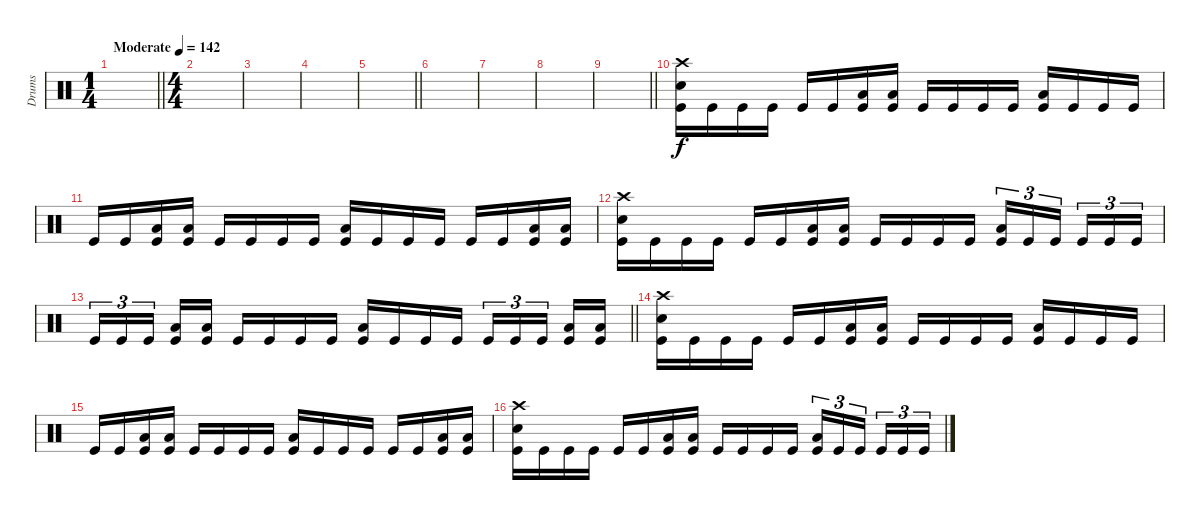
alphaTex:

\track ("Drums" "Drums") {instrument percussion}
\staff
\articulation defaults
\ts (1 4)
\tempo (142 "Moderate")
\clef neutral
\barLineRight lightlight
\ks c
|
\ts (4 4)
|
|
|
\barLineRight lightlight
|
|
|
|
\barLineRight lightlight
|
("Crash high (hit)" "Electric Snare (hit)" "Kick (hit)").16 "Kick (hit)".16 "Kick (hit)".16 "Kick (hit)".16 "Kick (hit)".16 "Kick (hit)".16 ("Low Floor Tom (hit)" "Kick (hit)").16 ("Low Floor Tom (hit)" "Kick (hit)").16 "Kick (hit)".16 "Kick (hit)".16 "Kick (hit)".16 "Kick (hit)".16 ("Low Floor Tom (hit)" "Kick (hit)").16 "Kick (hit)".16 "Kick (hit)".16 "Kick (hit)".16 |
"Kick (hit)".16 "Kick (hit)".16 ("Low Floor Tom (hit)" "Kick (hit)").16 ("Low Floor Tom (hit)" "Kick (hit)").16 "Kick (hit)".16 "Kick (hit)".16 "Kick (hit)".16 "Kick (hit)".16 ("Low Floor Tom (hit)" "Kick (hit)").16 "Kick (hit)".16 "Kick (hit)".16 "Kick (hit)".16 "Kick (hit)".16 "Kick (hit)".16 ("Low Floor Tom (hit)" "Kick (hit)").16 ("Low Floor Tom (hit)" "Kick (hit)").16 |
("Crash high (hit)" "Electric Snare (hit)" "Kick (hit)").16 "Kick (hit)".16 "Kick (hit)".16 "Kick (hit)".16 "Kick (hit)".16 "Kick (hit)".16 ("Low Floor Tom (hit)" "Kick (hit)").16 ("Low Floor Tom (hit)" "Kick (hit)").16 "Kick (hit)".16 "Kick (hit)".16 "Kick (hit)".16 "Kick (hit)".16 ("Low Floor Tom (hit)" "Kick (hit)").16{tu (3 2)} "Kick (hit)".16{tu (3 2)} "Kick (hit)".16{tu (3 2) beam splitsecondary} "Kick (hit)".16{tu (3 2)} "Kick (hit)".16{tu (3 2)} "Kick (hit)".16{tu (3 2)} |
\barLineRight lightlight "Kick (hit)".16{tu (3 2)} "Kick (hit)".16{tu (3 2)} "Kick (hit)".16{tu (3 2) beam splitsecondary}
("Low Floor Tom (hit)" "Kick (hit)").16 ("Low Floor Tom (hit)" "Kick (hit)").16 "Kick (hit)".16 "Kick (hit)".16 "Kick (hit)".16 "Kick (hit)".16 ("Low Floor Tom (hit)" "Kick (hit)").16 "Kick (hit)".16 "Kick (hit)".16 "Kick (hit)".16 "Kick (hit)".16{tu (3 2)} "Kick (hit)".16{tu (3 2)} "Kick (hit)".16{tu (3 2) beam splitsecondary} ("Low Floor Tom (hit)" "Kick (hit)").16 ("Low Floor Tom (hit)" "Kick (hit)").16 |
("Crash high (hit)" "Electric Snare (hit)" "Kick (hit)").16 "Kick (hit)".16 "Kick (hit)".16 "Kick (hit)".16 "Kick (hit)".16 "Kick (hit)".16 ("Low Floor Tom (hit)" "Kick (hit)").16 ("Low Floor Tom (hit)" "Kick (hit)").16 "Kick (hit)".16 "Kick (hit)".16 "Kick (hit)".16 "Kick (hit)".16 ("Low Floor Tom (hit)" "Kick (hit)").16 "Kick (hit)".16 "Kick (hit)".16 "Kick (hit)".16 |
"Kick (hit)".16 "Kick (hit)".16 ("Low Floor Tom (hit)" "Kick (hit)").16 ("Low Floor Tom (hit)" "Kick (hit)").16 "Kick (hit)".16 "Kick (hit)".16 "Kick (hit)".16 "Kick (hit)".16 ("Low Floor Tom (hit)" "Kick (hit)").16 "Kick (hit)".16 "Kick (hit)".16 "Kick (hit)".16 "Kick (hit)".16 "Kick (hit)".16 ("Low Floor Tom (hit)" "Kick (hit)").16 ("Low Floor Tom (hit)" "Kick (hit)").16 |
("Crash high (hit)" "Electric Snare (hit)" "Kick (hit)").16 "Kick (hit)".16 "Kick (hit)".16 "Kick (hit)".16 "Kick (hit)".16 "Kick (hit)".16 ("Low Floor Tom (hit)" "Kick (hit)").16 ("Low Floor Tom (hit)" "Kick (hit)").16 "Kick (hit)".16 "Kick (hit)".16 "Kick (hit)".16 "Kick (hit)".16 ("Low Floor Tom (hit)" "Kick (hit)").16{tu (3 2)} "Kick (hit)".16{tu (3 2)} "Kick (hit)".16{tu (3 2) beam splitsecondary} "Kick (hit)".16{tu (3 2)} "Kick (hit)".16{tu (3 2)} "Kick (hit)".16{tu (3 2)}
